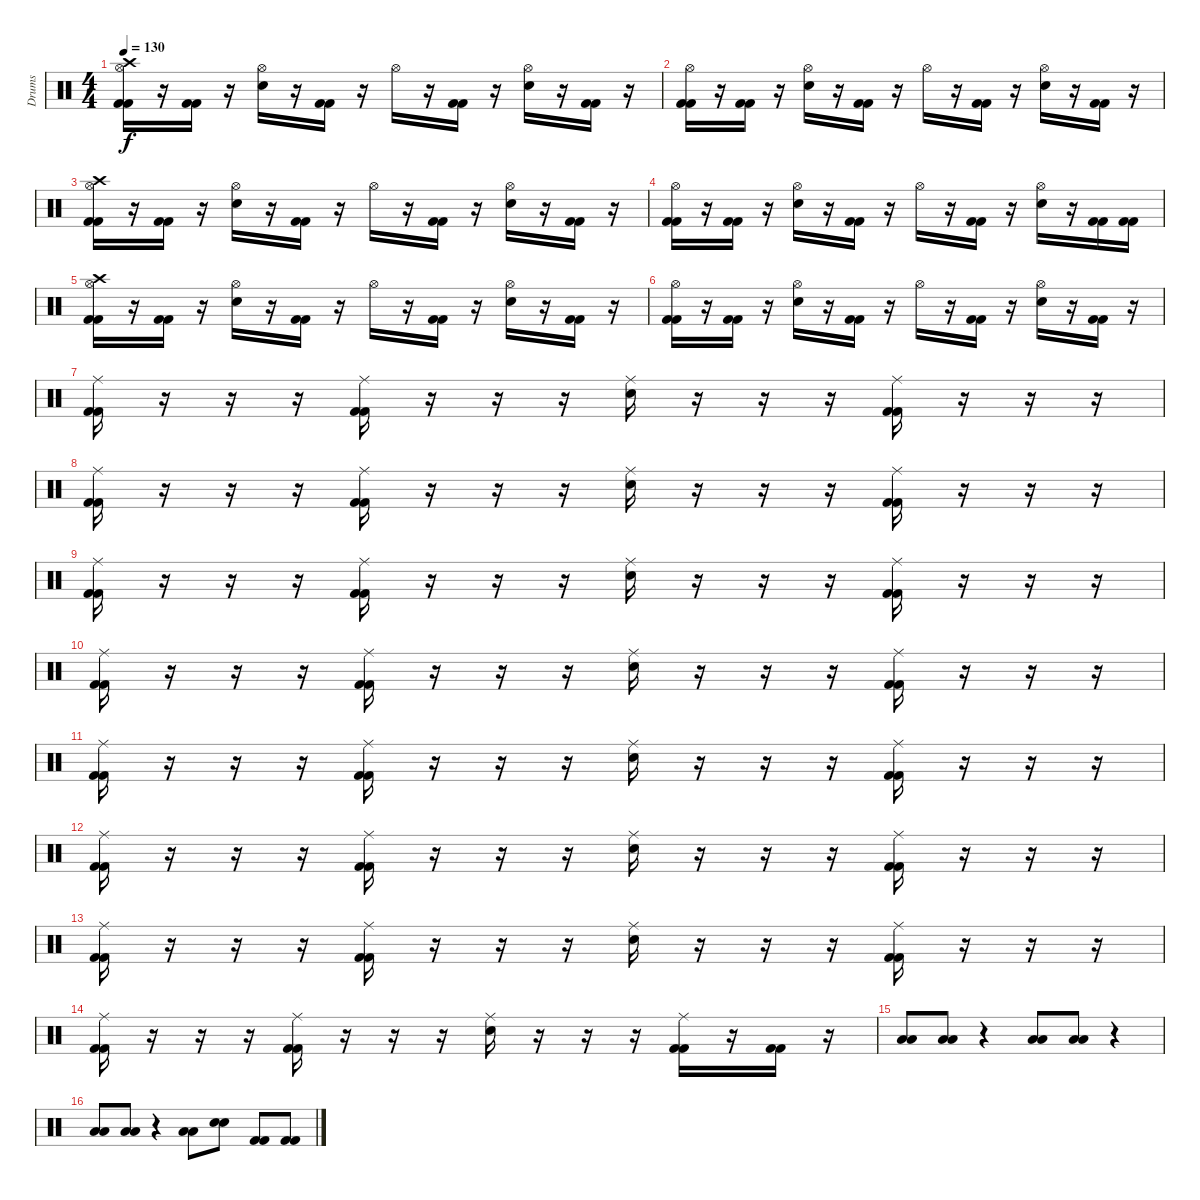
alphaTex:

\track ("Drums" "Drums") {instrument percussion}
\staff {score}
\articulation defaults
\ts (4 4)
\tempo 130
\clef neutral
\ks c
("Crash high (hit)" "Hi-Hat (open)" "Kick (hit) 2" "Kick (hit) 2").16{dy f} r.16 ("Kick (hit) 2" "Kick (hit) 2").16 r.16 ("Hi-Hat (open)" "Electric Snare (hit)").16 r.16 ("Kick (hit) 2" "Kick (hit) 2").16 r.16 "Hi-Hat (open)".16 r.16 ("Kick (hit) 2" "Kick (hit) 2").16 r.16 ("Hi-Hat (open)" "Electric Snare (hit)").16 r.16 ("Kick (hit) 2" "Kick (hit) 2").16 r.16 |
("Hi-Hat (open)" "Kick (hit) 2" "Kick (hit) 2").16 r.16 ("Kick (hit) 2" "Kick (hit) 2").16 r.16 ("Hi-Hat (open)" "Electric Snare (hit)").16 r.16 ("Kick (hit) 2" "Kick (hit) 2").16 r.16 "Hi-Hat (open)".16 r.16 ("Kick (hit) 2" "Kick (hit) 2").16 r.16 ("Hi-Hat (open)" "Electric Snare (hit)").16 r.16 ("Kick (hit) 2" "Kick (hit) 2").16 r.16 |
("Crash high (hit)" "Hi-Hat (open)" "Kick (hit) 2" "Kick (hit) 2").16 r.16 ("Kick (hit) 2" "Kick (hit) 2").16 r.16 ("Hi-Hat (open)" "Electric Snare (hit)").16 r.16 ("Kick (hit) 2" "Kick (hit) 2").16 r.16 "Hi-Hat (open)".16 r.16 ("Kick (hit) 2" "Kick (hit) 2").16 r.16 ("Hi-Hat (open)" "Electric Snare (hit)").16 r.16 ("Kick (hit) 2" "Kick (hit) 2").16 r.16 |
("Hi-Hat (open)" "Kick (hit) 2" "Kick (hit) 2").16 r.16 ("Kick (hit) 2" "Kick (hit) 2").16 r.16 ("Hi-Hat (open)" "Electric Snare (hit)").16 r.16 ("Kick (hit) 2" "Kick (hit) 2").16 r.16 "Hi-Hat (open)".16 r.16 ("Kick (hit) 2" "Kick (hit) 2").16 r.16 ("Hi-Hat (open)" "Electric Snare (hit)").16 r.16 ("Kick (hit) 2" "Kick (hit) 2").16 ("Kick (hit) 2" "Kick (hit) 2").16 |
("Crash high (hit)" "Hi-Hat (open)" "Kick (hit) 2" "Kick (hit) 2").16 r.16 ("Kick (hit) 2" "Kick (hit) 2").16 r.16 ("Hi-Hat (open)" "Electric Snare (hit)").16 r.16 ("Kick (hit) 2" "Kick (hit) 2").16 r.16 "Hi-Hat (open)".16 r.16 ("Kick (hit) 2" "Kick (hit) 2").16 r.16 ("Hi-Hat (open)" "Electric Snare (hit)").16 r.16 ("Kick (hit) 2" "Kick (hit) 2").16 r.16 |
("Hi-Hat (open)" "Kick (hit) 2" "Kick (hit) 2").16 r.16 ("Kick (hit) 2" "Kick (hit) 2").16 r.16 ("Hi-Hat (open)" "Electric Snare (hit)").16 r.16 ("Kick (hit) 2" "Kick (hit) 2").16 r.16 "Hi-Hat (open)".16 r.16 ("Kick (hit) 2" "Kick (hit) 2").16 r.16 ("Hi-Hat (open)" "Electric Snare (hit)").16 r.16 ("Kick (hit) 2" "Kick (hit) 2").16 r.16 |
("Ride (middle)" "Kick (hit) 2" "Kick (hit) 2").16 r.16 r.16 r.16 ("Ride (middle)" "Kick (hit) 2" "Kick (hit) 2").16 r.16 r.16 r.16 ("Ride (middle)" "Electric Snare (hit)").16 r.16 r.16 r.16 ("Ride (middle)" "Kick (hit) 2" "Kick (hit) 2").16 r.16 r.16 r.16 |
("Ride (middle)" "Kick (hit) 2" "Kick (hit) 2").16 r.16 r.16 r.16 ("Ride (middle)" "Kick (hit) 2" "Kick (hit) 2").16 r.16 r.16 r.16 ("Ride (middle)" "Electric Snare (hit)").16 r.16 r.16 r.16 ("Ride (middle)" "Kick (hit) 2" "Kick (hit) 2").16 r.16 r.16 r.16 |
("Ride (middle)" "Kick (hit) 2" "Kick (hit) 2").16 r.16 r.16 r.16 ("Ride (middle)" "Kick (hit) 2" "Kick (hit) 2").16 r.16 r.16 r.16 ("Ride (middle)" "Electric Snare (hit)").16 r.16 r.16 r.16 ("Ride (middle)" "Kick (hit) 2" "Kick (hit) 2").16 r.16 r.16 r.16 |
("Ride (middle)" "Kick (hit) 2" "Kick (hit) 2").16 r.16 r.16 r.16 ("Ride (middle)" "Kick (hit) 2" "Kick (hit) 2").16 r.16 r.16 r.16 ("Ride (middle)" "Electric Snare (hit)").16 r.16 r.16 r.16 ("Ride (middle)" "Kick (hit) 2" "Kick (hit) 2").16 r.16 r.16 r.16 |
("Ride (middle)" "Kick (hit) 2" "Kick (hit) 2").16 r.16 r.16 r.16 ("Ride (middle)" "Kick (hit) 2" "Kick (hit) 2").16 r.16 r.16 r.16 ("Ride (middle)" "Electric Snare (hit)").16 r.16 r.16 r.16 ("Ride (middle)" "Kick (hit) 2" "Kick (hit) 2").16 r.16 r.16 r.16 |
("Ride (middle)" "Kick (hit) 2" "Kick (hit) 2").16 r.16 r.16 r.16 ("Ride (middle)" "Kick (hit) 2" "Kick (hit) 2").16 r.16 r.16 r.16 ("Ride (middle)" "Electric Snare (hit)").16 r.16 r.16 r.16 ("Ride (middle)" "Kick (hit) 2" "Kick (hit) 2").16 r.16 r.16 r.16 |
("Ride (middle)" "Kick (hit) 2" "Kick (hit) 2").16 r.16 r.16 r.16 ("Ride (middle)" "Kick (hit) 2" "Kick (hit) 2").16 r.16 r.16 r.16 ("Ride (middle)" "Electric Snare (hit)").16 r.16 r.16 r.16 ("Ride (middle)" "Kick (hit) 2" "Kick (hit) 2").16 r.16 r.16 r.16 |
("Ride (middle)" "Kick (hit) 2" "Kick (hit) 2").16 r.16 r.16 r.16 ("Ride (middle)" "Kick (hit) 2" "Kick (hit) 2").16 r.16 r.16 r.16 ("Ride (middle)" "Electric Snare (hit)").16 r.16 r.16 r.16 ("Ride (middle)" "Kick (hit) 2" "Kick (hit) 2").16 r.16 ("Kick (hit) 2" "Kick (hit) 2").16 r.16 |
("Low Floor Tom (hit)" "Low Floor Tom (hit)").8 ("Low Floor Tom (hit)" "Low Floor Tom (hit)").8 r.4 ("Low Floor Tom (hit)" "Low Floor Tom (hit)").8 ("Low Floor Tom (hit)" "Low Floor Tom (hit)").8 r.4 |
("Low Floor Tom (hit)" "Low Floor Tom (hit)").8 ("Low Floor Tom (hit)" "Low Floor Tom (hit)").8 r.4 ("Low Floor Tom (hit)" "Low Floor Tom (hit)").8 ("Electric Snare (hit)" "Electric Snare (hit)").8 ("Kick (hit) 2" "Kick (hit) 2").8 ("Kick (hit) 2" "Kick (hit) 2").8
